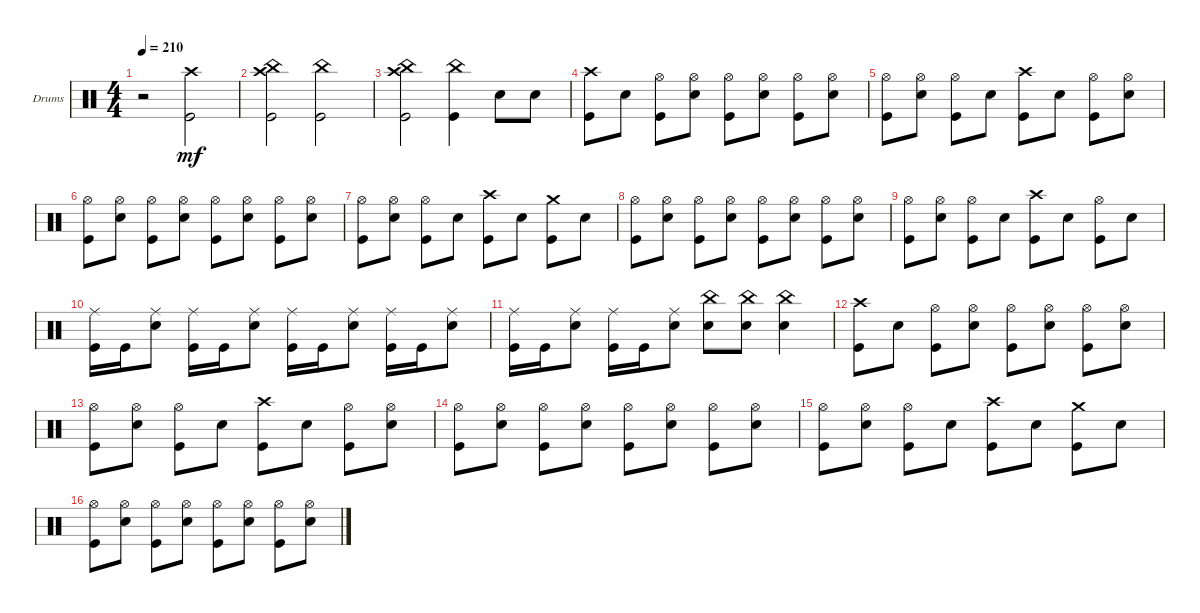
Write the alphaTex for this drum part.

\bracketExtendMode groupsimilarinstruments
\firstSystemTrackNameOrientation horizontal
\otherSystemsTrackNameOrientation horizontal
\track ("Drumkit" "Drums") {instrument percussion}
\staff {score}
\articulation defaults
\ts (4 4)
\tempo 210
\clef neutral
\ks c
r.2{dy mf} ("Kick (hit)" "Crash high (hit)").2 |
("Kick (hit)" "Crash high (hit)" "China (hit)").2 ("Kick (hit)" "China (hit)").2 |
("Kick (hit)" "Crash high (hit)" "China (hit)").2 ("Kick (hit)" "China (hit)").4 "Snare (hit) 2".8 "Snare (hit) 2".8 |
("Kick (hit)" "Crash high (hit)").8 "Snare (hit) 2".8 ("Hi-Hat (open)" "Kick (hit)").8 ("Hi-Hat (open)" "Snare (hit) 2").8 ("Hi-Hat (open)" "Kick (hit)").8 ("Hi-Hat (open)" "Snare (hit) 2").8 ("Hi-Hat (open)" "Kick (hit)").8 ("Hi-Hat (open)" "Snare (hit) 2").8 |
("Hi-Hat (open)" "Kick (hit)").8 ("Hi-Hat (open)" "Snare (hit) 2").8 ("Hi-Hat (open)" "Kick (hit)").8 "Snare (hit) 2".8 ("Kick (hit)" "Crash high (hit)").8 "Snare (hit) 2".8 ("Hi-Hat (open)" "Kick (hit)").8 ("Hi-Hat (open)" "Snare (hit) 2").8 |
("Hi-Hat (open)" "Kick (hit)").8 ("Hi-Hat (open)" "Snare (hit) 2").8 ("Hi-Hat (open)" "Kick (hit)").8 ("Hi-Hat (open)" "Snare (hit) 2").8 ("Hi-Hat (open)" "Kick (hit)").8 ("Hi-Hat (open)" "Snare (hit) 2").8 ("Hi-Hat (open)" "Kick (hit)").8 ("Hi-Hat (open)" "Snare (hit) 2").8 |
("Hi-Hat (open)" "Kick (hit)").8 ("Hi-Hat (open)" "Snare (hit) 2").8 ("Hi-Hat (open)" "Kick (hit)").8 "Snare (hit) 2".8 ("Kick (hit)" "Crash high (hit)").8 "Snare (hit) 2".8 ("Kick (hit)" "Crash medium (hit)").8 "Snare (hit) 2".8 |
("Hi-Hat (open)" "Kick (hit)").8 ("Hi-Hat (open)" "Snare (hit) 2").8 ("Hi-Hat (open)" "Kick (hit)").8 ("Hi-Hat (open)" "Snare (hit) 2").8 ("Hi-Hat (open)" "Kick (hit)").8 ("Hi-Hat (open)" "Snare (hit) 2").8 ("Hi-Hat (open)" "Kick (hit)").8 ("Hi-Hat (open)" "Snare (hit) 2").8 |
("Hi-Hat (open)" "Kick (hit)").8 ("Hi-Hat (open)" "Snare (hit) 2").8 ("Hi-Hat (open)" "Kick (hit)").8 "Snare (hit) 2".8 ("Kick (hit)" "Crash high (hit)").8 "Snare (hit) 2".8 ("Hi-Hat (open)" "Kick (hit)").8 "Snare (hit) 2".8 |
("Kick (hit)" "Ride (middle)").16 "Kick (hit)".16 ("Snare (hit) 2" "Ride (middle)").8 ("Kick (hit)" "Ride (middle)").16 "Kick (hit)".16 ("Snare (hit) 2" "Ride (middle)").8 ("Kick (hit)" "Ride (middle)").16 "Kick (hit)".16 ("Snare (hit) 2" "Ride (middle)").8 ("Kick (hit)" "Ride (middle)").16 "Kick (hit)".16 ("Snare (hit) 2" "Ride (middle)").8 |
("Kick (hit)" "Ride (middle)").16 "Kick (hit)".16 ("Snare (hit) 2" "Ride (middle)").8 ("Kick (hit)" "Ride (middle)").16 "Kick (hit)".16 ("Snare (hit) 2" "Ride (middle)").8 ("Snare (hit) 2" "China (hit)").8 ("Snare (hit) 2" "China (hit)").8 ("Snare (hit) 2" "China (hit)").4 |
("Kick (hit)" "Crash high (hit)").8 "Snare (hit) 2".8 ("Hi-Hat (open)" "Kick (hit)").8 ("Hi-Hat (open)" "Snare (hit) 2").8 ("Hi-Hat (open)" "Kick (hit)").8 ("Hi-Hat (open)" "Snare (hit) 2").8 ("Hi-Hat (open)" "Kick (hit)").8 ("Hi-Hat (open)" "Snare (hit) 2").8 |
("Hi-Hat (open)" "Kick (hit)").8 ("Hi-Hat (open)" "Snare (hit) 2").8 ("Hi-Hat (open)" "Kick (hit)").8 "Snare (hit) 2".8 ("Kick (hit)" "Crash high (hit)").8 "Snare (hit) 2".8 ("Hi-Hat (open)" "Kick (hit)").8 ("Hi-Hat (open)" "Snare (hit) 2").8 |
("Hi-Hat (open)" "Kick (hit)").8 ("Hi-Hat (open)" "Snare (hit) 2").8 ("Hi-Hat (open)" "Kick (hit)").8 ("Hi-Hat (open)" "Snare (hit) 2").8 ("Hi-Hat (open)" "Kick (hit)").8 ("Hi-Hat (open)" "Snare (hit) 2").8 ("Hi-Hat (open)" "Kick (hit)").8 ("Hi-Hat (open)" "Snare (hit) 2").8 |
("Hi-Hat (open)" "Kick (hit)").8 ("Hi-Hat (open)" "Snare (hit) 2").8 ("Hi-Hat (open)" "Kick (hit)").8 "Snare (hit) 2".8 ("Kick (hit)" "Crash high (hit)").8 "Snare (hit) 2".8 ("Kick (hit)" "Crash medium (hit)").8 "Snare (hit) 2".8 |
("Hi-Hat (open)" "Kick (hit)").8 ("Hi-Hat (open)" "Snare (hit) 2").8 ("Hi-Hat (open)" "Kick (hit)").8 ("Hi-Hat (open)" "Snare (hit) 2").8 ("Hi-Hat (open)" "Kick (hit)").8 ("Hi-Hat (open)" "Snare (hit) 2").8 ("Hi-Hat (open)" "Kick (hit)").8 ("Hi-Hat (open)" "Snare (hit) 2").8
